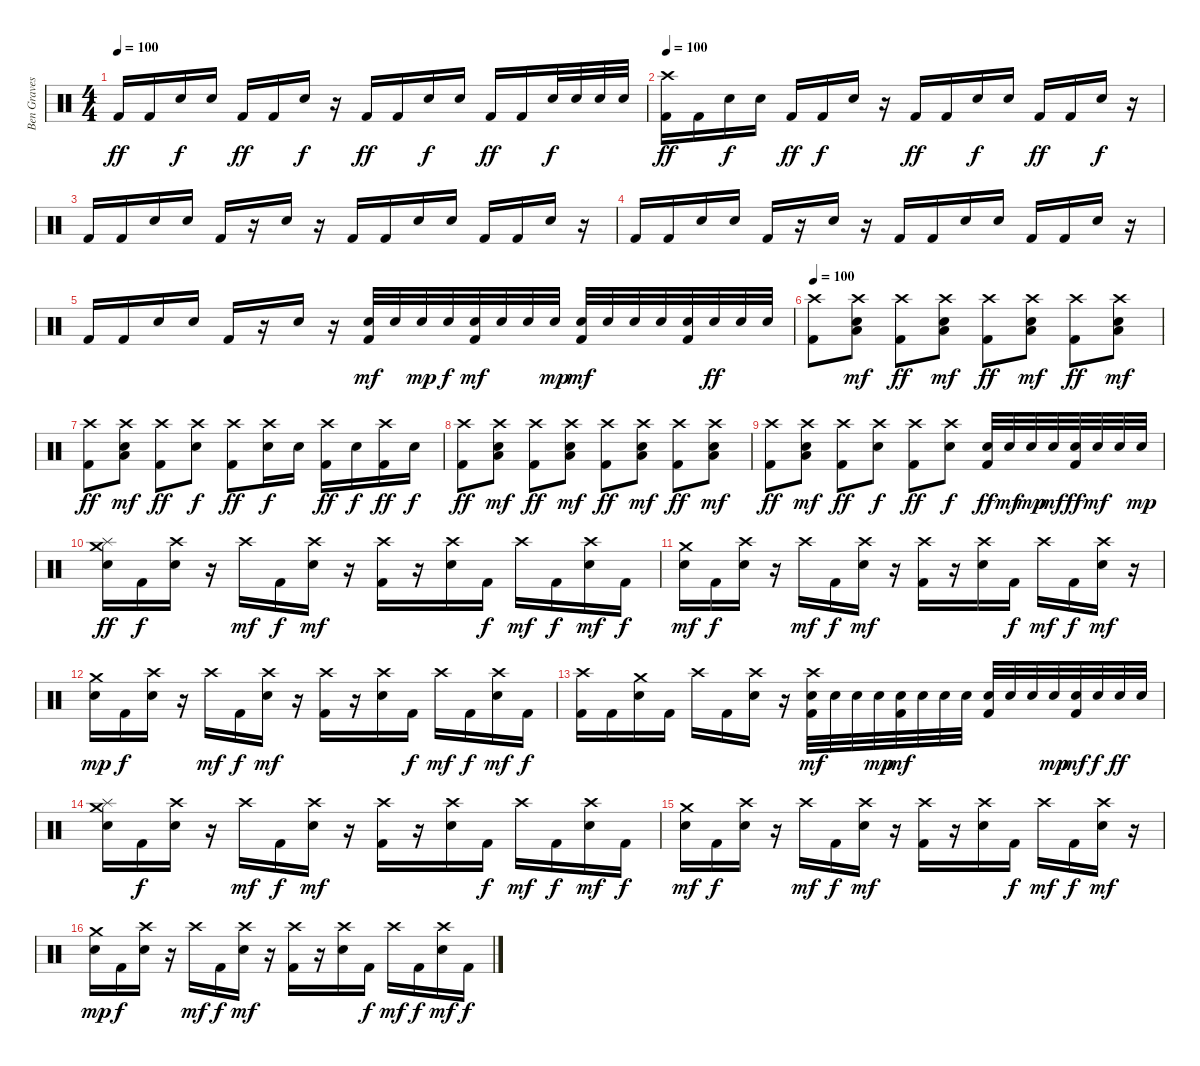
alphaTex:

\track ("Ben Graves (theghoul)" "Ben Graves") {instrument percussion}
\staff {score}
\articulation defaults
\ts (4 4)
\tempo 100
\clef neutral
\ks c "Kick (hit) 2".16{dy ff} "Kick (hit) 2".16 "Snare (hit) 2".16{dy f} "Snare (hit) 2".16 "Kick (hit) 2".16{dy ff} "Kick (hit) 2".16 "Snare (hit) 2".16{dy f}
r.16 "Kick (hit) 2".16{dy ff} "Kick (hit) 2".16 "Snare (hit) 2".16{dy f} "Snare (hit) 2".16 "Kick (hit) 2".16{dy ff} "Kick (hit) 2".16 "Snare (hit) 2".32{dy f} "Snare (hit) 2".32 "Snare (hit) 2".32 "Snare (hit) 2".32 |
\tempo 100
("Crash high (hit)" "Kick (hit) 2").16{dy ff} "Kick (hit) 2".16 "Snare (hit) 2".16{dy f} "Snare (hit) 2".16 "Kick (hit) 2".16{dy ff} "Kick (hit) 2".16{dy f} "Snare (hit) 2".16 r.16 "Kick (hit) 2".16{dy ff} "Kick (hit) 2".16 "Snare (hit) 2".16{dy f} "Snare (hit) 2".16 "Kick (hit) 2".16{dy ff} "Kick (hit) 2".16 "Snare (hit) 2".16{dy f} r.16 |
"Kick (hit) 2".16 "Kick (hit) 2".16 "Snare (hit) 2".16 "Snare (hit) 2".16 "Kick (hit) 2".16 r.16 "Snare (hit) 2".16 r.16 "Kick (hit) 2".16 "Kick (hit) 2".16 "Snare (hit) 2".16 "Snare (hit) 2".16 "Kick (hit) 2".16 "Kick (hit) 2".16 "Snare (hit) 2".16 r.16 |
"Kick (hit) 2".16 "Kick (hit) 2".16 "Snare (hit) 2".16 "Snare (hit) 2".16 "Kick (hit) 2".16 r.16 "Snare (hit) 2".16 r.16 "Kick (hit) 2".16 "Kick (hit) 2".16 "Snare (hit) 2".16 "Snare (hit) 2".16 "Kick (hit) 2".16 "Kick (hit) 2".16 "Snare (hit) 2".16 r.16 |
"Kick (hit) 2".16 "Kick (hit) 2".16 "Snare (hit) 2".16 "Snare (hit) 2".16 "Kick (hit) 2".16 r.16 "Snare (hit) 2".16 r.16 ("Snare (hit) 2" "Kick (hit) 2").32{dy mf} "Snare (hit) 2".32 "Snare (hit) 2".32{dy mp} "Snare (hit) 2".32{dy f} ("Snare (hit) 2" "Kick (hit) 2").32{dy mf} "Snare (hit) 2".32 "Snare (hit) 2".32 "Snare (hit) 2".32{dy mp} ("Snare (hit) 2" "Kick (hit) 2").32{dy mf} "Snare (hit) 2".32 "Snare (hit) 2".32 "Snare (hit) 2".32 ("Snare (hit) 2" "Kick (hit) 2").32 "Snare (hit) 2".32{dy ff} "Snare (hit) 2".32 "Snare (hit) 2".32 |
\tempo 100
("Crash high (hit)" "Kick (hit) 2").8 ("Crash high (hit)" "Snare (hit) 2" "Low Tom (hit)").8{dy mf} ("Crash high (hit)" "Kick (hit) 2").8{dy ff} ("Crash high (hit)" "Snare (hit) 2" "Low Tom (hit)").8{dy mf} ("Crash high (hit)" "Kick (hit) 2").8{dy ff} ("Crash high (hit)" "Snare (hit) 2" "Low Tom (hit)").8{dy mf} ("Crash high (hit)" "Kick (hit) 2").8{dy ff} ("Crash high (hit)" "Snare (hit) 2" "Low Tom (hit)").8{dy mf} |
("Crash high (hit)" "Kick (hit) 2").8{dy ff} ("Crash high (hit)" "Snare (hit) 2" "Low Tom (hit)").8{dy mf} ("Crash high (hit)" "Kick (hit) 2").8{dy ff} ("Crash high (hit)" "Snare (hit) 2").8{dy f} ("Crash high (hit)" "Kick (hit) 2").8{dy ff} ("Crash high (hit)" "Snare (hit) 2").16{dy f} "Snare (hit) 2".16 ("Crash high (hit)" "Kick (hit) 2").16{dy ff} "Snare (hit) 2".16{dy f} ("Crash high (hit)" "Kick (hit) 2").16{dy ff} "Snare (hit) 2".16{dy f} |
("Crash high (hit)" "Kick (hit) 2").8{dy ff} ("Crash high (hit)" "Snare (hit) 2" "Low Tom (hit)").8{dy mf} ("Crash high (hit)" "Kick (hit) 2").8{dy ff} ("Crash high (hit)" "Snare (hit) 2" "Low Tom (hit)").8{dy mf} ("Crash high (hit)" "Kick (hit) 2").8{dy ff} ("Crash high (hit)" "Snare (hit) 2" "Low Tom (hit)").8{dy mf} ("Crash high (hit)" "Kick (hit) 2").8{dy ff} ("Crash high (hit)" "Snare (hit) 2" "Low Tom (hit)").8{dy mf} |
("Crash high (hit)" "Kick (hit) 2").8{dy ff} ("Crash high (hit)" "Snare (hit) 2" "Low Tom (hit)").8{dy mf} ("Crash high (hit)" "Kick (hit) 2").8{dy ff} ("Crash high (hit)" "Snare (hit) 2").8{dy f} ("Crash high (hit)" "Kick (hit) 2").8{dy ff} ("Crash high (hit)" "Snare (hit) 2").8{dy f} ("Snare (hit) 2" "Kick (hit) 2").32{dy ff} "Snare (hit) 2".32{dy mf} "Snare (hit) 2".32{dy mp} "Snare (hit) 2".32{dy mf} ("Snare (hit) 2" "Kick (hit) 2").32{dy ff} "Snare (hit) 2".32{dy mf} "Snare (hit) 2".32 "Snare (hit) 2".32{dy mp} |
("Crash medium (hit)" "Splash (hit)" "Snare (hit) 2").16{dy ff} "Kick (hit) 2".16{dy f} ("Crash high (hit)" "Snare (hit) 2").16 r.16 "Crash high (hit)".16{dy mf} "Kick (hit) 2".16{dy f} ("Crash high (hit)" "Snare (hit) 2").16{dy mf} r.16 ("Crash high (hit)" "Kick (hit) 2").16 r.16 ("Crash high (hit)" "Snare (hit) 2").16 "Kick (hit) 2".16{dy f} "Crash high (hit)".16{dy mf} "Kick (hit) 2".16{dy f} ("Crash high (hit)" "Snare (hit) 2").16{dy mf} "Kick (hit) 2".16{dy f} |
("Crash medium (hit)" "Snare (hit) 2").16{dy mf} "Kick (hit) 2".16{dy f} ("Crash high (hit)" "Snare (hit) 2").16 r.16 "Crash high (hit)".16{dy mf} "Kick (hit) 2".16{dy f} ("Crash high (hit)" "Snare (hit) 2").16{dy mf} r.16 ("Crash high (hit)" "Kick (hit) 2").16 r.16 ("Crash high (hit)" "Snare (hit) 2").16 "Kick (hit) 2".16{dy f} "Crash high (hit)".16{dy mf} "Kick (hit) 2".16{dy f} ("Crash high (hit)" "Snare (hit) 2").16{dy mf} r.16 |
("Crash medium (hit)" "Snare (hit) 2").16{dy mp} "Kick (hit) 2".16{dy f} ("Crash high (hit)" "Snare (hit) 2").16 r.16 "Crash high (hit)".16{dy mf} "Kick (hit) 2".16{dy f} ("Crash high (hit)" "Snare (hit) 2").16{dy mf} r.16 ("Crash high (hit)" "Kick (hit) 2").16 r.16 ("Crash high (hit)" "Snare (hit) 2").16 "Kick (hit) 2".16{dy f} "Crash high (hit)".16{dy mf} "Kick (hit) 2".16{dy f} ("Crash high (hit)" "Snare (hit) 2").16{dy mf} "Kick (hit) 2".16{dy f} |
("Crash high (hit)" "Kick (hit) 2").16 "Kick (hit) 2".16 ("Crash medium (hit)" "Snare (hit) 2").16 "Kick (hit) 2".16 "Crash high (hit)".16 "Kick (hit) 2".16 ("Crash high (hit)" "Snare (hit) 2").16 r.16 ("Crash high (hit)" "Snare (hit) 2" "Kick (hit) 2").32{dy mf} "Snare (hit) 2".32 "Snare (hit) 2".32 "Snare (hit) 2".32{dy mp} ("Snare (hit) 2" "Kick (hit) 2").32{dy mf} "Snare (hit) 2".32 "Snare (hit) 2".32 "Snare (hit) 2".32 ("Snare (hit) 2" "Kick (hit) 2").32 "Snare (hit) 2".32 "Snare (hit) 2".32 "Snare (hit) 2".32{dy mp} ("Snare (hit) 2" "Kick (hit) 2").32{dy mf} "Snare (hit) 2".32{dy f} "Snare (hit) 2".32{dy ff} "Snare (hit) 2".32 |
("Crash medium (hit)" "Splash (hit)" "Snare (hit) 2").16 "Kick (hit) 2".16{dy f} ("Crash high (hit)" "Snare (hit) 2").16 r.16 "Crash high (hit)".16{dy mf} "Kick (hit) 2".16{dy f} ("Crash high (hit)" "Snare (hit) 2").16{dy mf} r.16 ("Crash high (hit)" "Kick (hit) 2").16 r.16 ("Crash high (hit)" "Snare (hit) 2").16 "Kick (hit) 2".16{dy f} "Crash high (hit)".16{dy mf} "Kick (hit) 2".16{dy f} ("Crash high (hit)" "Snare (hit) 2").16{dy mf} "Kick (hit) 2".16{dy f} |
("Crash medium (hit)" "Snare (hit) 2").16{dy mf} "Kick (hit) 2".16{dy f} ("Crash high (hit)" "Snare (hit) 2").16 r.16 "Crash high (hit)".16{dy mf} "Kick (hit) 2".16{dy f} ("Crash high (hit)" "Snare (hit) 2").16{dy mf} r.16 ("Crash high (hit)" "Kick (hit) 2").16 r.16 ("Crash high (hit)" "Snare (hit) 2").16 "Kick (hit) 2".16{dy f} "Crash high (hit)".16{dy mf} "Kick (hit) 2".16{dy f} ("Crash high (hit)" "Snare (hit) 2").16{dy mf} r.16 |
("Crash medium (hit)" "Snare (hit) 2").16{dy mp} "Kick (hit) 2".16{dy f} ("Crash high (hit)" "Snare (hit) 2").16 r.16 "Crash high (hit)".16{dy mf} "Kick (hit) 2".16{dy f} ("Crash high (hit)" "Snare (hit) 2").16{dy mf} r.16 ("Crash high (hit)" "Kick (hit) 2").16 r.16 ("Crash high (hit)" "Snare (hit) 2").16 "Kick (hit) 2".16{dy f} "Crash high (hit)".16{dy mf} "Kick (hit) 2".16{dy f} ("Crash high (hit)" "Snare (hit) 2").16{dy mf} "Kick (hit) 2".16{dy f}
